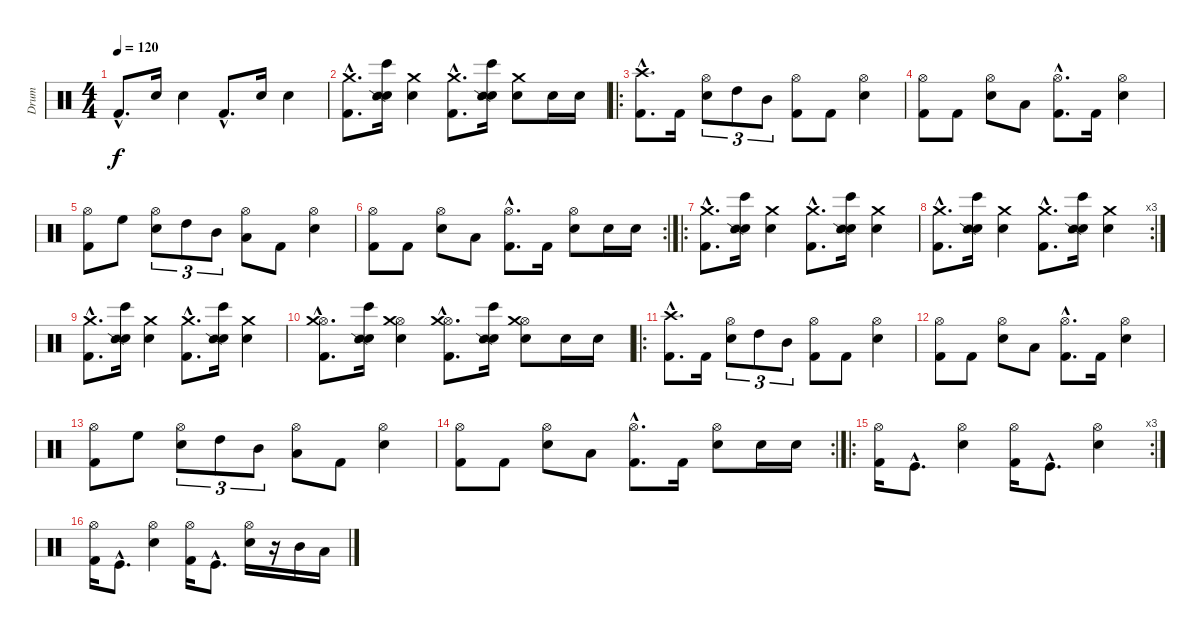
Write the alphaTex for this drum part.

\track ("Drum" "Drum") {instrument percussion}
\staff {score}
\articulation defaults
\ts (4 4)
\tempo 120
\clef neutral
\ks c "Kick (hit) 2"{hac}.8{d dy f} "Electric Snare (hit)".16 "Electric Snare (hit)".4 "Kick (hit) 2"{hac}.8{d} "Electric Snare (hit)".16 "Electric Snare (hit)".4
|
("Crash medium (hit)"{hac} "Kick (hit) 2"{hac}).8{d} ("Electric Snare (hit)" "Bongo High (hit)" "Snare (side stick) 2").16 ("Crash medium (hit)" "Electric Snare (hit)").4 ("Crash medium (hit)"{hac} "Kick (hit) 2"{hac}).8{d} ("Electric Snare (hit)" "Bongo High (hit)" "Snare (side stick) 2").16 ("Crash medium (hit)" "Electric Snare (hit)").8 "Electric Snare (hit)".16 "Electric Snare (hit)".16 |
\ro
("Crash high (hit)"{hac} "Kick (hit) 2"{hac}).8{d} "Kick (hit) 2".16 ("Hi-Hat (open)" "Electric Snare (hit)").8{tu (3 2)} "High Tom (hit)".8{tu (3 2)} "Mid Tom (hit)".8{tu (3 2)} ("Hi-Hat (open)" "Kick (hit) 2").8 "Kick (hit) 2".8 ("Hi-Hat (open)" "Electric Snare (hit)").4 |
("Hi-Hat (open)" "Kick (hit) 2").8 "Kick (hit) 2".8 ("Hi-Hat (open)" "Electric Snare (hit)").8 "Low Tom (hit)".8 ("Hi-Hat (open)"{hac} "Kick (hit) 2"{hac}).8{d} "Kick (hit) 2".16 ("Hi-Hat (open)" "Electric Snare (hit)").4 |
("Hi-Hat (open)" "Kick (hit) 2").8 "High Floor Tom (hit)".8 ("Hi-Hat (open)" "Electric Snare (hit)").8{tu (3 2)} "High Tom (hit)".8{tu (3 2)} "Mid Tom (hit)".8{tu (3 2)} ("Hi-Hat (open)" "Low Tom (hit)").8 "Kick (hit) 2".8 ("Hi-Hat (open)" "Electric Snare (hit)").4 |
\rc 2
("Hi-Hat (open)" "Kick (hit) 2").8 "Kick (hit) 2".8 ("Hi-Hat (open)" "Electric Snare (hit)").8 "Low Tom (hit)".8 ("Hi-Hat (open)"{hac} "Kick (hit) 2"{hac}).8{d} "Kick (hit) 2".16 ("Hi-Hat (open)" "Electric Snare (hit)").8 "Electric Snare (hit)".16 "Electric Snare (hit)".16 |
\ro
("Crash medium (hit)"{hac} "Kick (hit) 2"{hac}).8{d} ("Electric Snare (hit)" "Bongo High (hit)" "Snare (side stick) 2").16 ("Crash medium (hit)" "Electric Snare (hit)").4 ("Crash medium (hit)"{hac} "Kick (hit) 2"{hac}).8{d} ("Electric Snare (hit)" "Bongo High (hit)" "Snare (side stick) 2").16 ("Crash medium (hit)" "Electric Snare (hit)").4 |
\rc 3
("Crash medium (hit)"{hac} "Kick (hit) 2"{hac}).8{d} ("Electric Snare (hit)" "Bongo High (hit)" "Snare (side stick) 2").16 ("Crash medium (hit)" "Electric Snare (hit)").4 ("Crash medium (hit)"{hac} "Kick (hit) 2"{hac}).8{d} ("Electric Snare (hit)" "Bongo High (hit)" "Snare (side stick) 2").16 ("Crash medium (hit)" "Electric Snare (hit)").4 |
("Crash medium (hit)"{hac} "Kick (hit) 2"{hac}).8{d} ("Electric Snare (hit)" "Bongo High (hit)" "Snare (side stick) 2").16 ("Crash medium (hit)" "Electric Snare (hit)").4 ("Crash medium (hit)"{hac} "Kick (hit) 2"{hac}).8{d} ("Electric Snare (hit)" "Bongo High (hit)" "Snare (side stick) 2").16 ("Crash medium (hit)" "Electric Snare (hit)").4 |
("Hi-Hat (open)"{hac} "Crash medium (hit)"{hac} "Kick (hit) 2"{hac}).8{d} ("Electric Snare (hit)" "Bongo High (hit)" "Snare (side stick) 2").16 ("Hi-Hat (open)" "Crash medium (hit)" "Electric Snare (hit)").4 ("Hi-Hat (open)"{hac} "Crash medium (hit)"{hac} "Kick (hit) 2"{hac}).8{d} ("Electric Snare (hit)" "Bongo High (hit)" "Snare (side stick) 2").16 ("Hi-Hat (open)" "Crash medium (hit)" "Electric Snare (hit)").8 "Electric Snare (hit)".16 "Electric Snare (hit)".16 |
\ro
("Crash high (hit)"{hac} "Kick (hit) 2"{hac}).8{d} "Kick (hit) 2".16 ("Hi-Hat (open)" "Electric Snare (hit)").8{tu (3 2)} "High Tom (hit)".8{tu (3 2)} "Mid Tom (hit)".8{tu (3 2)} ("Hi-Hat (open)" "Kick (hit) 2").8 "Kick (hit) 2".8 ("Hi-Hat (open)" "Electric Snare (hit)").4 |
("Hi-Hat (open)" "Kick (hit) 2").8 "Kick (hit) 2".8 ("Hi-Hat (open)" "Electric Snare (hit)").8 "Low Tom (hit)".8 ("Hi-Hat (open)"{hac} "Kick (hit) 2"{hac}).8{d} "Kick (hit) 2".16 ("Hi-Hat (open)" "Electric Snare (hit)").4 |
("Hi-Hat (open)" "Kick (hit) 2").8 "High Floor Tom (hit)".8 ("Hi-Hat (open)" "Electric Snare (hit)").8{tu (3 2)} "High Tom (hit)".8{tu (3 2)} "Mid Tom (hit)".8{tu (3 2)} ("Hi-Hat (open)" "Low Tom (hit)").8 "Kick (hit) 2".8 ("Hi-Hat (open)" "Electric Snare (hit)").4 |
\rc 2
("Hi-Hat (open)" "Kick (hit) 2").8 "Kick (hit) 2".8 ("Hi-Hat (open)" "Electric Snare (hit)").8 "Low Tom (hit)".8 ("Hi-Hat (open)"{hac} "Kick (hit) 2"{hac}).8{d} "Kick (hit) 2".16 ("Hi-Hat (open)" "Electric Snare (hit)").8 "Electric Snare (hit)".16 "Electric Snare (hit)".16 |
\ro
\rc 3
("Hi-Hat (open)" "Kick (hit) 2").16 "Kick (hit)"{hac}.8{d} ("Hi-Hat (open)" "Snare (hit) 2").4 ("Hi-Hat (open)" "Kick (hit) 2").16 "Kick (hit)"{hac}.8{d} ("Hi-Hat (open)" "Snare (hit) 2").4 |
("Hi-Hat (open)" "Kick (hit) 2").16 "Kick (hit)"{hac}.8{d} ("Hi-Hat (open)" "Snare (hit) 2").4 ("Hi-Hat (open)" "Kick (hit) 2").16 "Kick (hit)"{hac}.8{d} ("Hi-Hat (open)" "Snare (hit) 2").16 r.16 "Mid Tom (hit)".16 "Low Tom (hit)".16
